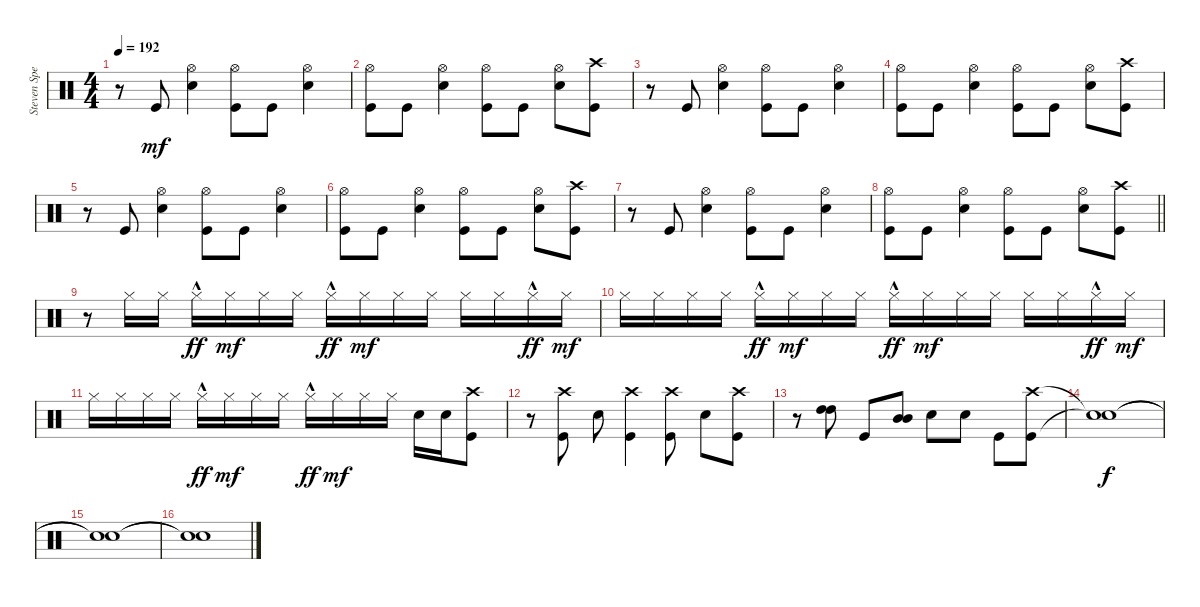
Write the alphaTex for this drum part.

\track ("Steven Spence" "Steven Spe") {instrument percussion}
\staff {score}
\articulation defaults
\ts (4 4)
\tempo 192
\clef neutral
\ks c
r.8{dy mf} "Kick (hit)".8 ("Hi-Hat (open)" "Electric Snare (hit)").4 ("Hi-Hat (open)" "Kick (hit)").8 "Kick (hit)".8 ("Hi-Hat (open)" "Electric Snare (hit)").4 |
("Hi-Hat (open)" "Kick (hit)").8 "Kick (hit)".8 ("Hi-Hat (open)" "Electric Snare (hit)").4 ("Hi-Hat (open)" "Kick (hit)").8 "Kick (hit)".8 ("Hi-Hat (open)" "Electric Snare (hit)").8 ("Crash high (hit)" "Kick (hit)").8 |
r.8 "Kick (hit)".8 ("Hi-Hat (open)" "Electric Snare (hit)").4 ("Hi-Hat (open)" "Kick (hit)").8 "Kick (hit)".8 ("Hi-Hat (open)" "Electric Snare (hit)").4 |
("Hi-Hat (open)" "Kick (hit)").8 "Kick (hit)".8 ("Hi-Hat (open)" "Electric Snare (hit)").4 ("Hi-Hat (open)" "Kick (hit)").8 "Kick (hit)".8 ("Hi-Hat (open)" "Electric Snare (hit)").8 ("Crash high (hit)" "Kick (hit)").8 |
r.8 "Kick (hit)".8 ("Hi-Hat (open)" "Electric Snare (hit)").4 ("Hi-Hat (open)" "Kick (hit)").8 "Kick (hit)".8 ("Hi-Hat (open)" "Electric Snare (hit)").4 |
("Hi-Hat (open)" "Kick (hit)").8 "Kick (hit)".8 ("Hi-Hat (open)" "Electric Snare (hit)").4 ("Hi-Hat (open)" "Kick (hit)").8 "Kick (hit)".8 ("Hi-Hat (open)" "Electric Snare (hit)").8 ("Crash high (hit)" "Kick (hit)").8 |
r.8 "Kick (hit)".8 ("Hi-Hat (open)" "Electric Snare (hit)").4 ("Hi-Hat (open)" "Kick (hit)").8 "Kick (hit)".8 ("Hi-Hat (open)" "Electric Snare (hit)").4 |
\barLineRight lightlight
("Hi-Hat (open)" "Kick (hit)").8 "Kick (hit)".8 ("Hi-Hat (open)" "Electric Snare (hit)").4 ("Hi-Hat (open)" "Kick (hit)").8 "Kick (hit)".8 ("Hi-Hat (open)" "Electric Snare (hit)").8 ("Crash high (hit)" "Kick (hit)").8 |
r.8 "Hi-Hat (closed)".16 "Hi-Hat (closed)".16 "Hi-Hat (closed)"{hac}.16{dy ff} "Hi-Hat (closed)".16{dy mf} "Hi-Hat (closed)".16 "Hi-Hat (closed)".16 "Hi-Hat (closed)"{hac}.16{dy ff} "Hi-Hat (closed)".16{dy mf} "Hi-Hat (closed)".16 "Hi-Hat (closed)".16 "Hi-Hat (closed)".16 "Hi-Hat (closed)".16 "Hi-Hat (closed)"{hac}.16{dy ff} "Hi-Hat (closed)".16{dy mf} |
"Hi-Hat (closed)".16 "Hi-Hat (closed)".16 "Hi-Hat (closed)".16 "Hi-Hat (closed)".16 "Hi-Hat (closed)"{hac}.16{dy ff} "Hi-Hat (closed)".16{dy mf} "Hi-Hat (closed)".16 "Hi-Hat (closed)".16 "Hi-Hat (closed)"{hac}.16{dy ff} "Hi-Hat (closed)".16{dy mf} "Hi-Hat (closed)".16 "Hi-Hat (closed)".16 "Hi-Hat (closed)".16 "Hi-Hat (closed)".16 "Hi-Hat (closed)"{hac}.16{dy ff} "Hi-Hat (closed)".16{dy mf} |
"Hi-Hat (closed)".16 "Hi-Hat (closed)".16 "Hi-Hat (closed)".16 "Hi-Hat (closed)".16 "Hi-Hat (closed)"{hac}.16{dy ff} "Hi-Hat (closed)".16{dy mf} "Hi-Hat (closed)".16 "Hi-Hat (closed)".16 "Hi-Hat (closed)"{hac}.16{dy ff} "Hi-Hat (closed)".16{dy mf} "Hi-Hat (closed)".16 "Hi-Hat (closed)".16 "Electric Snare (hit)".16 "Electric Snare (hit)".16 ("Crash high (hit)" "Kick (hit)").8 |
r.8 ("Crash high (hit)" "Kick (hit)").8 "Electric Snare (hit)".8 ("Crash high (hit)" "Kick (hit)").4 ("Crash high (hit)" "Kick (hit)").8 "Electric Snare (hit)".8 ("Crash high (hit)" "Kick (hit)").8 |
r.8 ("High Tom (hit)" "High Tom (hit)").8 "Kick (hit)".8 ("Mid Tom (hit)" "Mid Tom (hit)").8 "Electric Snare (hit)".8 "Electric Snare (hit)".8 "Kick (hit)".8 ("Crash high (hit)" "Kick (hit)").8 |
("Snare (hit)"{t} "Snare (hit)"{t}).1{dy f} |
("Snare (hit)"{t} "Snare (hit)"{t}).1 |
("Snare (hit)"{t} "Snare (hit)"{t}).1
